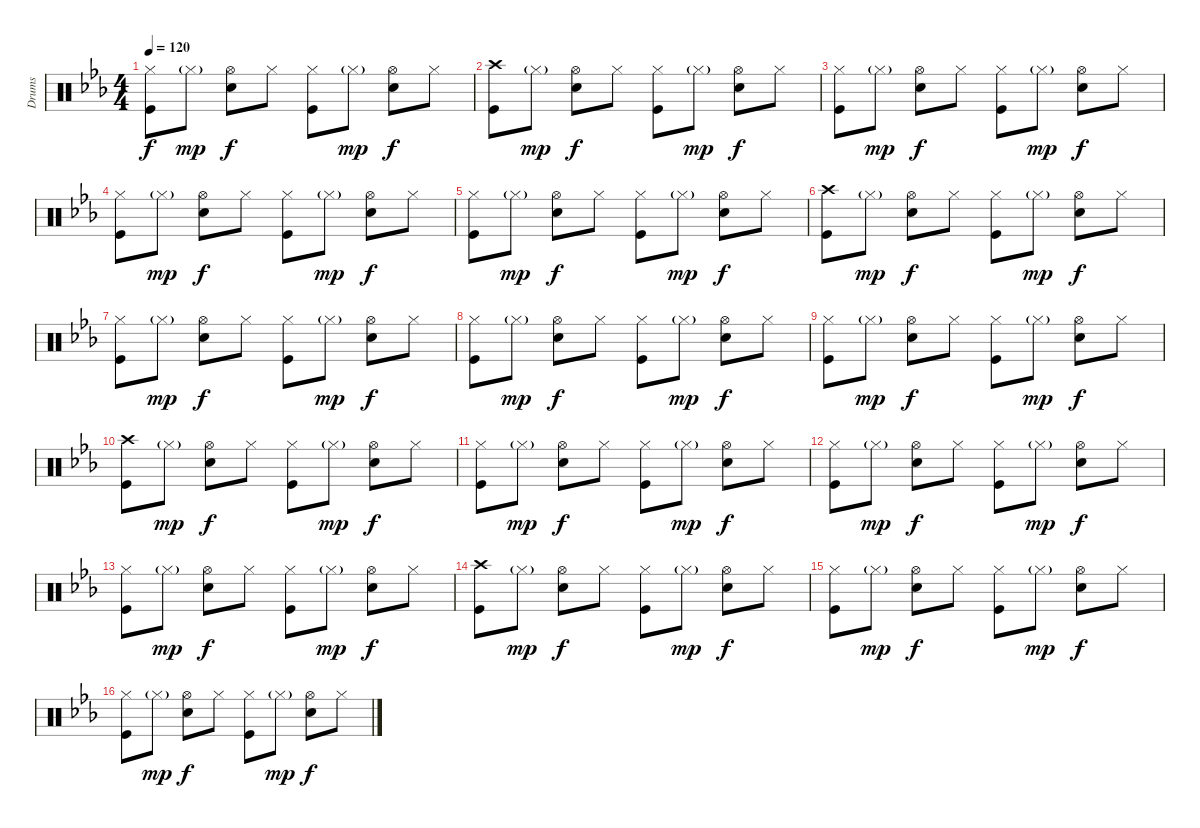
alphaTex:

\track ("Drums" "Drums") {instrument percussion}
\staff {score}
\articulation defaults
\ts (4 4)
\tempo 120
\clef neutral
\ks eb
("Hi-Hat (closed)" "Kick (hit)").8{dy f} "Hi-Hat (closed)"{g}.8{dy mp} ("Hi-Hat (open)" "Electric Snare (hit)").8{dy f} "Hi-Hat (closed)".8 ("Hi-Hat (closed)" "Kick (hit)").8 "Hi-Hat (closed)"{g}.8{dy mp} ("Hi-Hat (open)" "Electric Snare (hit)").8{dy f} "Hi-Hat (closed)".8 |
("Crash high (hit)" "Kick (hit)").8 "Hi-Hat (closed)"{g}.8{dy mp} ("Hi-Hat (open)" "Electric Snare (hit)").8{dy f} "Hi-Hat (closed)".8 ("Hi-Hat (closed)" "Kick (hit)").8 "Hi-Hat (closed)"{g}.8{dy mp} ("Hi-Hat (open)" "Electric Snare (hit)").8{dy f} "Hi-Hat (closed)".8 |
("Hi-Hat (closed)" "Kick (hit)").8 "Hi-Hat (closed)"{g}.8{dy mp} ("Hi-Hat (open)" "Electric Snare (hit)").8{dy f} "Hi-Hat (closed)".8 ("Hi-Hat (closed)" "Kick (hit)").8 "Hi-Hat (closed)"{g}.8{dy mp} ("Hi-Hat (open)" "Electric Snare (hit)").8{dy f} "Hi-Hat (closed)".8 |
("Hi-Hat (closed)" "Kick (hit)").8 "Hi-Hat (closed)"{g}.8{dy mp} ("Hi-Hat (open)" "Electric Snare (hit)").8{dy f} "Hi-Hat (closed)".8 ("Hi-Hat (closed)" "Kick (hit)").8 "Hi-Hat (closed)"{g}.8{dy mp} ("Hi-Hat (open)" "Electric Snare (hit)").8{dy f} "Hi-Hat (closed)".8 |
("Hi-Hat (closed)" "Kick (hit)").8 "Hi-Hat (closed)"{g}.8{dy mp} ("Hi-Hat (open)" "Electric Snare (hit)").8{dy f} "Hi-Hat (closed)".8 ("Hi-Hat (closed)" "Kick (hit)").8 "Hi-Hat (closed)"{g}.8{dy mp} ("Hi-Hat (open)" "Electric Snare (hit)").8{dy f} "Hi-Hat (closed)".8 |
("Crash high (hit)" "Kick (hit)").8 "Hi-Hat (closed)"{g}.8{dy mp} ("Hi-Hat (open)" "Electric Snare (hit)").8{dy f} "Hi-Hat (closed)".8 ("Hi-Hat (closed)" "Kick (hit)").8 "Hi-Hat (closed)"{g}.8{dy mp} ("Hi-Hat (open)" "Electric Snare (hit)").8{dy f} "Hi-Hat (closed)".8 |
("Hi-Hat (closed)" "Kick (hit)").8 "Hi-Hat (closed)"{g}.8{dy mp} ("Hi-Hat (open)" "Electric Snare (hit)").8{dy f} "Hi-Hat (closed)".8 ("Hi-Hat (closed)" "Kick (hit)").8 "Hi-Hat (closed)"{g}.8{dy mp} ("Hi-Hat (open)" "Electric Snare (hit)").8{dy f} "Hi-Hat (closed)".8 |
("Hi-Hat (closed)" "Kick (hit)").8 "Hi-Hat (closed)"{g}.8{dy mp} ("Hi-Hat (open)" "Electric Snare (hit)").8{dy f} "Hi-Hat (closed)".8 ("Hi-Hat (closed)" "Kick (hit)").8 "Hi-Hat (closed)"{g}.8{dy mp} ("Hi-Hat (open)" "Electric Snare (hit)").8{dy f} "Hi-Hat (closed)".8 |
("Hi-Hat (closed)" "Kick (hit)").8 "Hi-Hat (closed)"{g}.8{dy mp} ("Hi-Hat (open)" "Electric Snare (hit)").8{dy f} "Hi-Hat (closed)".8 ("Hi-Hat (closed)" "Kick (hit)").8 "Hi-Hat (closed)"{g}.8{dy mp} ("Hi-Hat (open)" "Electric Snare (hit)").8{dy f} "Hi-Hat (closed)".8 |
("Crash high (hit)" "Kick (hit)").8 "Hi-Hat (closed)"{g}.8{dy mp} ("Hi-Hat (open)" "Electric Snare (hit)").8{dy f} "Hi-Hat (closed)".8 ("Hi-Hat (closed)" "Kick (hit)").8 "Hi-Hat (closed)"{g}.8{dy mp} ("Hi-Hat (open)" "Electric Snare (hit)").8{dy f} "Hi-Hat (closed)".8 |
("Hi-Hat (closed)" "Kick (hit)").8 "Hi-Hat (closed)"{g}.8{dy mp} ("Hi-Hat (open)" "Electric Snare (hit)").8{dy f} "Hi-Hat (closed)".8 ("Hi-Hat (closed)" "Kick (hit)").8 "Hi-Hat (closed)"{g}.8{dy mp} ("Hi-Hat (open)" "Electric Snare (hit)").8{dy f} "Hi-Hat (closed)".8 |
("Hi-Hat (closed)" "Kick (hit)").8 "Hi-Hat (closed)"{g}.8{dy mp} ("Hi-Hat (open)" "Electric Snare (hit)").8{dy f} "Hi-Hat (closed)".8 ("Hi-Hat (closed)" "Kick (hit)").8 "Hi-Hat (closed)"{g}.8{dy mp} ("Hi-Hat (open)" "Electric Snare (hit)").8{dy f} "Hi-Hat (closed)".8 |
("Hi-Hat (closed)" "Kick (hit)").8 "Hi-Hat (closed)"{g}.8{dy mp} ("Hi-Hat (open)" "Electric Snare (hit)").8{dy f} "Hi-Hat (closed)".8 ("Hi-Hat (closed)" "Kick (hit)").8 "Hi-Hat (closed)"{g}.8{dy mp} ("Hi-Hat (open)" "Electric Snare (hit)").8{dy f} "Hi-Hat (closed)".8 |
("Crash high (hit)" "Kick (hit)").8 "Hi-Hat (closed)"{g}.8{dy mp} ("Hi-Hat (open)" "Electric Snare (hit)").8{dy f} "Hi-Hat (closed)".8 ("Hi-Hat (closed)" "Kick (hit)").8 "Hi-Hat (closed)"{g}.8{dy mp} ("Hi-Hat (open)" "Electric Snare (hit)").8{dy f} "Hi-Hat (closed)".8 |
("Hi-Hat (closed)" "Kick (hit)").8 "Hi-Hat (closed)"{g}.8{dy mp} ("Hi-Hat (open)" "Electric Snare (hit)").8{dy f} "Hi-Hat (closed)".8 ("Hi-Hat (closed)" "Kick (hit)").8 "Hi-Hat (closed)"{g}.8{dy mp} ("Hi-Hat (open)" "Electric Snare (hit)").8{dy f} "Hi-Hat (closed)".8 |
("Hi-Hat (closed)" "Kick (hit)").8 "Hi-Hat (closed)"{g}.8{dy mp} ("Hi-Hat (open)" "Electric Snare (hit)").8{dy f} "Hi-Hat (closed)".8 ("Hi-Hat (closed)" "Kick (hit)").8 "Hi-Hat (closed)"{g}.8{dy mp} ("Hi-Hat (open)" "Electric Snare (hit)").8{dy f} "Hi-Hat (closed)".8
